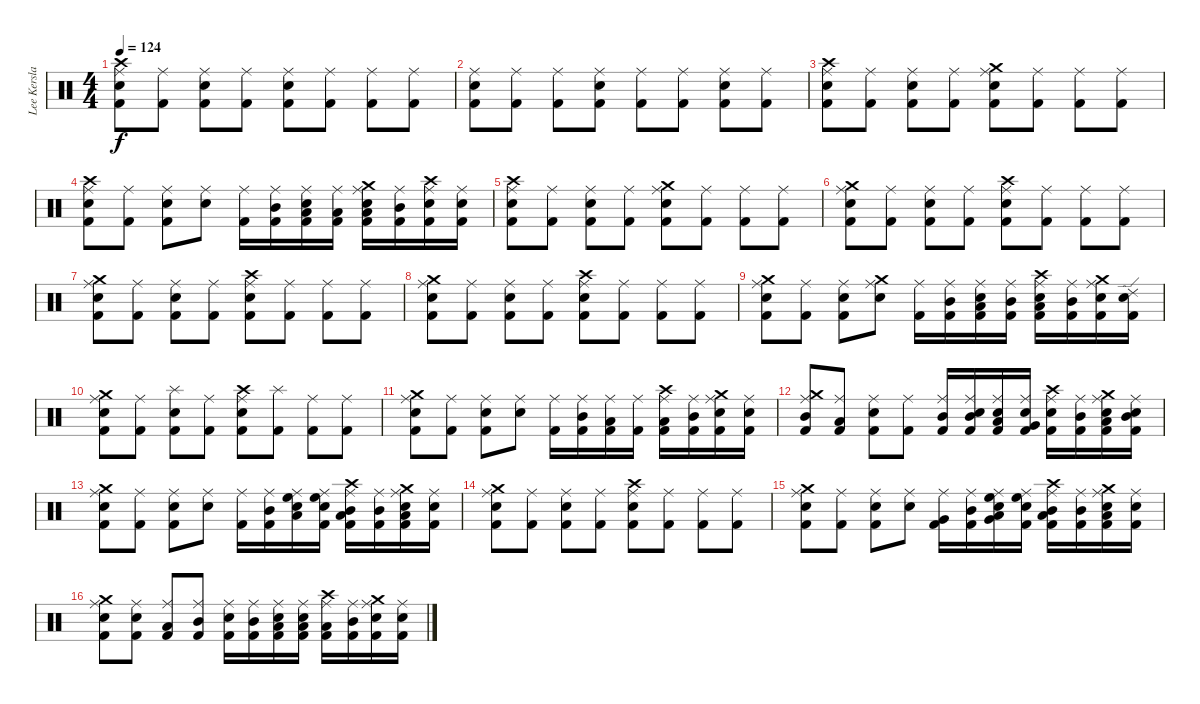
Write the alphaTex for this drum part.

\track ("Lee Kerslake" "Lee Kersla") {instrument percussion}
\staff {score}
\articulation defaults
\ts (4 4)
\tempo 124
\clef neutral
\ks c
("Kick (hit) 2" "Electric Snare (hit)" "Crash high (hit)" "Ride (middle)").8{dy f} ("Kick (hit) 2" "Ride (middle)").8 ("Kick (hit) 2" "Electric Snare (hit)" "Ride (middle)").8 ("Kick (hit) 2" "Ride (middle)").8 ("Kick (hit) 2" "Electric Snare (hit)" "Ride (middle)").8 ("Kick (hit) 2" "Ride (middle)").8 ("Kick (hit) 2" "Ride (middle)").8 ("Kick (hit) 2" "Ride (middle)").8 |
("Kick (hit) 2" "Electric Snare (hit)" "Ride (middle)").8 ("Kick (hit) 2" "Ride (middle)").8 ("Kick (hit) 2" "Ride (middle)").8 ("Kick (hit) 2" "Electric Snare (hit)" "Ride (middle)").8 ("Kick (hit) 2" "Ride (middle)").8 ("Kick (hit) 2" "Ride (middle)").8 ("Kick (hit) 2" "Electric Snare (hit)" "Ride (middle)").8 ("Kick (hit) 2" "Ride (middle)").8 |
("Kick (hit) 2" "Electric Snare (hit)" "Crash high (hit)" "Ride (middle)").8 ("Kick (hit) 2" "Ride (middle)").8 ("Kick (hit) 2" "Electric Snare (hit)" "Ride (middle)").8 ("Kick (hit) 2" "Ride (middle)").8 ("Kick (hit) 2" "Electric Snare (hit)" "Crash medium (hit)" "Ride (middle)").8 ("Kick (hit) 2" "Ride (middle)").8 ("Kick (hit) 2" "Ride (middle)").8 ("Kick (hit) 2" "Ride (middle)").8 |
("Kick (hit) 2" "Electric Snare (hit)" "Crash high (hit)" "Ride (middle)").8 ("Kick (hit) 2" "Ride (middle)").8 ("Kick (hit) 2" "Electric Snare (hit)" "Ride (middle)").8 ("Electric Snare (hit)" "Ride (middle)").8 ("Kick (hit) 2" "Ride (middle)").16 ("Kick (hit) 2" "Mid Tom (hit)" "Ride (middle)").16 ("Low Tom (hit)" "Kick (hit) 2" "Electric Snare (hit)" "Ride (middle)").16 ("Kick (hit) 2" "Low Floor Tom (hit)" "Ride (middle)").16 ("Kick (hit) 2" "Low Tom (hit)" "Electric Snare (hit)" "Crash medium (hit)" "Ride (middle)").16 ("Kick (hit) 2" "Mid Tom (hit)" "Ride (middle)").16 ("Kick (hit) 2" "Electric Snare (hit)" "Crash high (hit)" "Ride (middle)").16 ("Kick (hit) 2" "Electric Snare (hit)" "Ride (middle)").16 |
("Kick (hit) 2" "Electric Snare (hit)" "Crash high (hit)" "Ride (middle)").8 ("Kick (hit) 2" "Ride (middle)").8 ("Kick (hit) 2" "Electric Snare (hit)" "Ride (middle)").8 ("Kick (hit) 2" "Ride (middle)").8 ("Kick (hit) 2" "Electric Snare (hit)" "Crash medium (hit)" "Ride (middle)").8 ("Kick (hit) 2" "Ride (middle)").8 ("Kick (hit) 2" "Ride (middle)").8 ("Kick (hit) 2" "Ride (middle)").8 |
("Kick (hit) 2" "Electric Snare (hit)" "Crash medium (hit)" "Ride (middle)").8 ("Kick (hit) 2" "Ride (middle)").8 ("Kick (hit) 2" "Electric Snare (hit)" "Ride (middle)").8 ("Kick (hit) 2" "Ride (middle)").8 ("Kick (hit) 2" "Electric Snare (hit)" "Crash high (hit)" "Ride (middle)").8 ("Kick (hit) 2" "Ride (middle)").8 ("Kick (hit) 2" "Ride (middle)").8 ("Kick (hit) 2" "Ride (middle)").8 |
("Kick (hit) 2" "Electric Snare (hit)" "Crash medium (hit)" "Ride (middle)").8 ("Kick (hit) 2" "Ride (middle)").8 ("Kick (hit) 2" "Electric Snare (hit)" "Ride (middle)").8 ("Kick (hit) 2" "Ride (middle)").8 ("Kick (hit) 2" "Electric Snare (hit)" "Crash high (hit)" "Ride (middle)").8 ("Kick (hit) 2" "Ride (middle)").8 ("Kick (hit) 2" "Ride (middle)").8 ("Kick (hit) 2" "Ride (middle)").8 |
("Kick (hit) 2" "Electric Snare (hit)" "Crash medium (hit)" "Ride (middle)").8 ("Kick (hit) 2" "Ride (middle)").8 ("Kick (hit) 2" "Electric Snare (hit)" "Ride (middle)").8 ("Kick (hit) 2" "Ride (middle)").8 ("Kick (hit) 2" "Electric Snare (hit)" "Crash high (hit)" "Ride (middle)").8 ("Kick (hit) 2" "Ride (middle)").8 ("Kick (hit) 2" "Ride (middle)").8 ("Kick (hit) 2" "Ride (middle)").8 |
("Kick (hit) 2" "Electric Snare (hit)" "Crash medium (hit)" "Ride (middle)").8 ("Kick (hit) 2" "Ride (middle)").8 ("Kick (hit) 2" "Electric Snare (hit)" "Ride (middle)").8 ("Electric Snare (hit)" "Crash medium (hit)" "Ride (middle)").8 ("Kick (hit) 2" "Ride (middle)").16 ("Kick (hit) 2" "Mid Tom (hit)" "Ride (middle)").16 ("Low Tom (hit)" "Kick (hit) 2" "Electric Snare (hit)" "Ride (middle)").16 ("Kick (hit) 2" "Mid Tom (hit)" "Ride (middle)").16 ("Kick (hit) 2" "Low Tom (hit)" "Electric Snare (hit)" "Crash high (hit)" "Ride (middle)").16 ("Kick (hit) 2" "Mid Tom (hit)" "Ride (middle)").16 ("Kick (hit) 2" "Electric Snare (hit)" "Crash medium (hit)" "Ride (middle)").16 ("Kick (hit) 2" "Electric Snare (hit)" "Ride (edge) 2").16 |
("Kick (hit) 2" "Electric Snare (hit)" "Crash medium (hit)" "Ride (middle)").8 ("Kick (hit) 2" "Ride (middle)").8 ("Kick (hit) 2" "Electric Snare (hit)" "Splash (hit)").8 ("Kick (hit) 2" "Ride (middle)").8 ("Kick (hit) 2" "Electric Snare (hit)" "Crash high (hit)" "Ride (middle)").8 ("Kick (hit) 2" "Splash (hit)").8 ("Kick (hit) 2" "Ride (middle)").8 ("Kick (hit) 2" "Ride (middle)").8 |
("Kick (hit) 2" "Electric Snare (hit)" "Crash medium (hit)" "Ride (middle)").8 ("Kick (hit) 2" "Ride (middle)").8 ("Kick (hit) 2" "Electric Snare (hit)" "Ride (middle)").8 ("Electric Snare (hit)" "Ride (middle)").8 ("Kick (hit) 2" "Ride (middle)").16 ("Kick (hit) 2" "Mid Tom (hit)" "Ride (middle)").16 ("Low Tom (hit)" "Kick (hit) 2" "Ride (middle)").16 ("Kick (hit) 2" "Ride (middle)").16 ("Kick (hit) 2" "Low Tom (hit)" "Crash high (hit)" "Ride (middle)").16 ("Kick (hit) 2" "Mid Tom (hit)" "Ride (middle)").16 ("Kick (hit) 2" "Electric Snare (hit)" "Crash medium (hit)" "Ride (middle)").16 ("Kick (hit) 2" "Electric Snare (hit)" "Ride (middle)").16 |
("Kick (hit) 2" "Mid Tom (hit)" "Crash medium (hit)" "Ride (middle)").8 ("Kick (hit) 2" "Low Tom (hit)" "Ride (middle)").8 ("Kick (hit) 2" "Electric Snare (hit)" "Ride (middle)").8 ("Kick (hit) 2" "Ride (middle)").8 ("Kick (hit) 2" "Mid Tom (hit)" "Ride (middle)").16 ("Kick (hit) 2" "Electric Snare (hit)" "Mid Tom (hit)" "Ride (middle)").16 ("Kick (hit) 2" "Low Tom (hit)" "Electric Snare (hit)" "Ride (middle)").16 ("Kick (hit) 2" "Very Low Tom (hit)" "Electric Snare (hit)" "Ride (middle)").16 ("Kick (hit) 2" "Electric Snare (hit)" "Crash high (hit)" "Ride (middle)").16 ("Kick (hit) 2" "Mid Tom (hit)" "Ride (middle)").16 ("Kick (hit) 2" "Low Tom (hit)" "Electric Snare (hit)" "Crash medium (hit)" "Ride (middle)").16 ("Kick (hit) 2" "Mid Tom (hit)" "Electric Snare (hit)" "Ride (middle)").16 |
("Kick (hit) 2" "Electric Snare (hit)" "Crash medium (hit)" "Ride (middle)").8 ("Kick (hit) 2" "Ride (middle)").8 ("Kick (hit) 2" "Electric Snare (hit)" "Ride (middle)").8 ("Electric Snare (hit)" "Ride (middle)").8 ("Kick (hit) 2" "Ride (middle)").16 ("Kick (hit) 2" "Mid Tom (hit)" "Ride (middle)").16 ("Low Tom (hit)" "High Floor Tom (hit)" "Electric Snare (hit)" "Ride (middle)").16 ("Kick (hit) 2" "High Floor Tom (hit)" "Electric Snare (hit)" "Ride (middle)").16 ("Kick (hit) 2" "Low Tom (hit)" "Mid Tom (hit)" "Crash high (hit)" "Ride (middle)").16 ("Kick (hit) 2" "Mid Tom (hit)" "Ride (middle)").16 ("Kick (hit) 2" "Low Tom (hit)" "Electric Snare (hit)" "Crash medium (hit)" "Ride (middle)").16 ("Kick (hit) 2" "Electric Snare (hit)" "Ride (middle)").16 |
("Kick (hit) 2" "Electric Snare (hit)" "Crash medium (hit)" "Ride (middle)").8 ("Kick (hit) 2" "Ride (middle)").8 ("Kick (hit) 2" "Electric Snare (hit)" "Ride (middle)").8 ("Kick (hit) 2" "Ride (middle)").8 ("Kick (hit) 2" "Electric Snare (hit)" "Crash high (hit)" "Ride (middle)").8 ("Kick (hit) 2" "Ride (middle)").8 ("Kick (hit) 2" "Ride (middle)").8 ("Kick (hit) 2" "Ride (middle)").8 |
("Kick (hit) 2" "Electric Snare (hit)" "Crash medium (hit)" "Ride (middle)").8 ("Kick (hit) 2" "Ride (middle)").8 ("Kick (hit) 2" "Electric Snare (hit)" "Ride (middle)").8 ("Electric Snare (hit)" "Ride (middle)").8 ("Very Low Tom (hit)" "Kick (hit) 2" "Ride (middle)").16 ("Kick (hit) 2" "Mid Tom (hit)" "Ride (middle)").16 ("Low Tom (hit)" "High Floor Tom (hit)" "Very Low Tom (hit)" "Electric Snare (hit)" "Ride (middle)").16 ("Kick (hit) 2" "High Floor Tom (hit)" "Electric Snare (hit)" "Ride (middle)").16 ("Kick (hit) 2" "Low Tom (hit)" "Mid Tom (hit)" "Crash high (hit)" "Ride (middle)").16 ("Kick (hit) 2" "Mid Tom (hit)" "Ride (middle)").16 ("Kick (hit) 2" "Low Tom (hit)" "Electric Snare (hit)" "Crash medium (hit)" "Ride (middle)").16 ("Kick (hit) 2" "Electric Snare (hit)" "Ride (middle)").16 |
("Kick (hit) 2" "Electric Snare (hit)" "Crash medium (hit)" "Ride (middle)").8 ("Kick (hit) 2" "Electric Snare (hit)" "Ride (middle)").8 ("Kick (hit) 2" "Low Tom (hit)" "Ride (middle)").8 ("Kick (hit) 2" "Mid Tom (hit)" "Ride (middle)").8 ("Kick (hit) 2" "Electric Snare (hit)" "Ride (middle)").16 ("Kick (hit) 2" "Mid Tom (hit)" "Ride (middle)").16 ("Kick (hit) 2" "Low Tom (hit)" "Electric Snare (hit)" "Ride (middle)").16 ("Kick (hit) 2" "Low Floor Tom (hit)" "Electric Snare (hit)" "Ride (middle)").16 ("Kick (hit) 2" "Low Tom (hit)" "Crash high (hit)" "Ride (middle)").16 ("Kick (hit) 2" "Mid Tom (hit)" "Ride (middle)").16 ("Kick (hit) 2" "Electric Snare (hit)" "Crash medium (hit)" "Ride (middle)").16 ("Kick (hit) 2" "Electric Snare (hit)" "Ride (middle)").16
